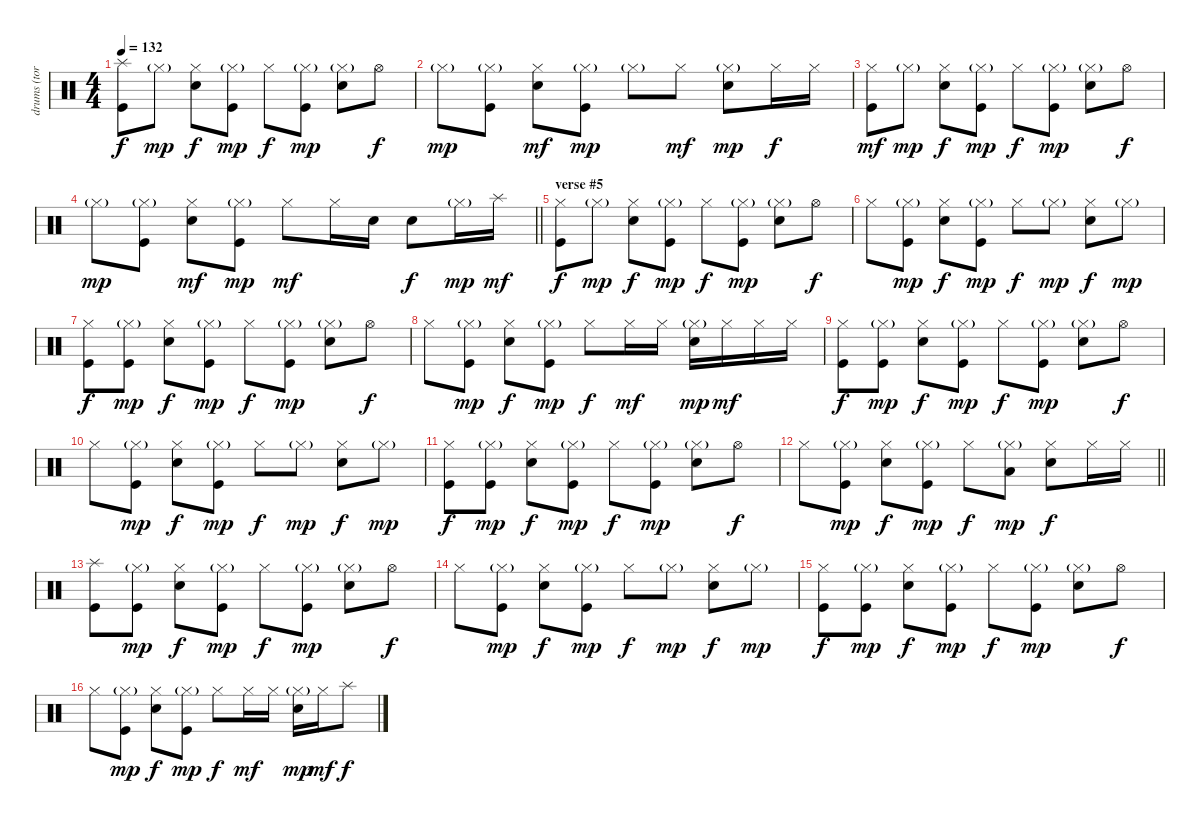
\track ("drums (tora)" "drums (tor") {instrument percussion}
\staff {score}
\articulation defaults
\ts (4 4)
\tempo 132
\clef neutral
\ks c
("Splash (hit)" "Kick (hit)").8{dy f} "Hi-Hat (closed)"{g}.8{dy mp} ("Hi-Hat (closed)" "Snare (hit) 2").8{dy f} ("Hi-Hat (closed)"{g} "Kick (hit)").8{dy mp} "Hi-Hat (closed)".8{dy f} ("Hi-Hat (closed)"{g} "Kick (hit)").8{dy mp} ("Hi-Hat (closed)"{g} "Snare (hit) 2").8 "Hi-Hat (open)".8{dy f} |
"Hi-Hat (closed)"{g}.8{dy mp} ("Hi-Hat (closed)"{g} "Kick (hit)").8 ("Hi-Hat (closed)" "Snare (hit) 2").8{dy mf} ("Hi-Hat (closed)"{g} "Kick (hit)").8{dy mp} "Hi-Hat (closed)"{g}.8 "Hi-Hat (closed)".8{dy mf} ("Hi-Hat (closed)"{g} "Snare (hit) 2").8{dy mp} "Hi-Hat (closed)".16{dy f} "Hi-Hat (closed)".16 |
("Hi-Hat (closed)" "Kick (hit)").8{dy mf} "Hi-Hat (closed)"{g}.8{dy mp} ("Hi-Hat (closed)" "Snare (hit) 2").8{dy f} ("Hi-Hat (closed)"{g} "Kick (hit)").8{dy mp} "Hi-Hat (closed)".8{dy f} ("Hi-Hat (closed)"{g} "Kick (hit)").8{dy mp} ("Hi-Hat (closed)"{g} "Snare (hit) 2").8 "Hi-Hat (open)".8{dy f} |
\barLineRight lightlight "Hi-Hat (closed)"{g}.8{dy mp}
("Hi-Hat (closed)"{g} "Kick (hit)").8 ("Hi-Hat (closed)" "Snare (hit) 2").8{dy mf} ("Hi-Hat (closed)"{g} "Kick (hit)").8{dy mp} "Hi-Hat (closed)".8{dy mf} "Hi-Hat (closed)".16 "Snare (hit) 2".16 "Snare (hit) 2".8{dy f} "Hi-Hat (closed)"{g}.16{dy mp} "Splash (hit)".16{dy mf} |
\section ("" "verse #5")
("Hi-Hat (closed)" "Kick (hit)").8{dy f} "Hi-Hat (closed)"{g}.8{dy mp} ("Hi-Hat (closed)" "Snare (hit) 2").8{dy f} ("Hi-Hat (closed)"{g} "Kick (hit)").8{dy mp} "Hi-Hat (closed)".8{dy f} ("Hi-Hat (closed)"{g} "Kick (hit)").8{dy mp} ("Hi-Hat (closed)"{g} "Snare (hit) 2").8 "Hi-Hat (open)".8{dy f} |
"Hi-Hat (closed)".8 ("Hi-Hat (closed)"{g} "Kick (hit)").8{dy mp} ("Hi-Hat (closed)" "Snare (hit) 2").8{dy f} ("Hi-Hat (closed)"{g} "Kick (hit)").8{dy mp} "Hi-Hat (closed)".8{dy f} "Hi-Hat (closed)"{g}.8{dy mp} ("Hi-Hat (closed)" "Snare (hit) 2").8{dy f} "Hi-Hat (closed)"{g}.8{dy mp} |
("Hi-Hat (closed)" "Kick (hit)").8{dy f} ("Hi-Hat (closed)"{g} "Kick (hit)").8{dy mp} ("Hi-Hat (closed)" "Snare (hit) 2").8{dy f} ("Hi-Hat (closed)"{g} "Kick (hit)").8{dy mp} "Hi-Hat (closed)".8{dy f} ("Hi-Hat (closed)"{g} "Kick (hit)").8{dy mp} ("Hi-Hat (closed)"{g} "Snare (hit) 2").8 "Hi-Hat (open)".8{dy f} |
"Hi-Hat (closed)".8 ("Hi-Hat (closed)"{g} "Kick (hit)").8{dy mp} ("Hi-Hat (closed)" "Snare (hit) 2").8{dy f} ("Hi-Hat (closed)"{g} "Kick (hit)").8{dy mp} "Hi-Hat (closed)".8{dy f} "Hi-Hat (closed)".16{dy mf} "Hi-Hat (closed)".16 ("Hi-Hat (closed)"{g} "Snare (hit) 2").16{dy mp} "Hi-Hat (closed)".16{dy mf} "Hi-Hat (closed)".16 "Hi-Hat (closed)".16 |
("Hi-Hat (closed)" "Kick (hit)").8{dy f} ("Hi-Hat (closed)"{g} "Kick (hit)").8{dy mp} ("Hi-Hat (closed)" "Snare (hit) 2").8{dy f} ("Hi-Hat (closed)"{g} "Kick (hit)").8{dy mp} "Hi-Hat (closed)".8{dy f} ("Hi-Hat (closed)"{g} "Kick (hit)").8{dy mp} ("Hi-Hat (closed)"{g} "Snare (hit) 2").8 "Hi-Hat (open)".8{dy f} |
"Hi-Hat (closed)".8 ("Hi-Hat (closed)"{g} "Kick (hit)").8{dy mp} ("Hi-Hat (closed)" "Snare (hit) 2").8{dy f} ("Hi-Hat (closed)"{g} "Kick (hit)").8{dy mp} "Hi-Hat (closed)".8{dy f} "Hi-Hat (closed)"{g}.8{dy mp} ("Hi-Hat (closed)" "Snare (hit) 2").8{dy f} "Hi-Hat (closed)"{g}.8{dy mp} |
("Hi-Hat (closed)" "Kick (hit)").8{dy f} ("Hi-Hat (closed)"{g} "Kick (hit)").8{dy mp} ("Hi-Hat (closed)" "Snare (hit) 2").8{dy f} ("Hi-Hat (closed)"{g} "Kick (hit)").8{dy mp} "Hi-Hat (closed)".8{dy f} ("Hi-Hat (closed)"{g} "Kick (hit)").8{dy mp} ("Hi-Hat (closed)"{g} "Snare (hit) 2").8 "Hi-Hat (open)".8{dy f} |
\barLineRight lightlight "Hi-Hat (closed)".8
("Hi-Hat (closed)"{g} "Kick (hit)").8{dy mp} ("Hi-Hat (closed)" "Snare (hit) 2").8{dy f} ("Hi-Hat (closed)"{g} "Kick (hit)").8{dy mp} "Hi-Hat (closed)".8{dy f} ("Hi-Hat (closed)"{g} "Low Tom (hit)").8{dy mp} ("Hi-Hat (closed)" "Snare (hit) 2").8{dy f} "Hi-Hat (closed)".16 "Hi-Hat (closed)".16 |
("Splash (hit)" "Kick (hit)").8 ("Hi-Hat (closed)"{g} "Kick (hit)").8{dy mp} ("Hi-Hat (closed)" "Snare (hit) 2").8{dy f} ("Hi-Hat (closed)"{g} "Kick (hit)").8{dy mp} "Hi-Hat (closed)".8{dy f} ("Hi-Hat (closed)"{g} "Kick (hit)").8{dy mp} ("Hi-Hat (closed)"{g} "Snare (hit) 2").8 "Hi-Hat (open)".8{dy f} |
"Hi-Hat (closed)".8 ("Hi-Hat (closed)"{g} "Kick (hit)").8{dy mp} ("Hi-Hat (closed)" "Snare (hit) 2").8{dy f} ("Hi-Hat (closed)"{g} "Kick (hit)").8{dy mp} "Hi-Hat (closed)".8{dy f} "Hi-Hat (closed)"{g}.8{dy mp} ("Hi-Hat (closed)" "Snare (hit) 2").8{dy f} "Hi-Hat (closed)"{g}.8{dy mp} |
("Hi-Hat (closed)" "Kick (hit)").8{dy f} ("Hi-Hat (closed)"{g} "Kick (hit)").8{dy mp} ("Hi-Hat (closed)" "Snare (hit) 2").8{dy f} ("Hi-Hat (closed)"{g} "Kick (hit)").8{dy mp} "Hi-Hat (closed)".8{dy f} ("Hi-Hat (closed)"{g} "Kick (hit)").8{dy mp} ("Hi-Hat (closed)"{g} "Snare (hit) 2").8 "Hi-Hat (open)".8{dy f} |
"Hi-Hat (closed)".8 ("Hi-Hat (closed)"{g} "Kick (hit)").8{dy mp} ("Hi-Hat (closed)" "Snare (hit) 2").8{dy f} ("Hi-Hat (closed)"{g} "Kick (hit)").8{dy mp} "Hi-Hat (closed)".8{dy f} "Hi-Hat (closed)".16{dy mf} "Hi-Hat (closed)".16 ("Hi-Hat (closed)"{g} "Snare (hit) 2").16{dy mp} "Hi-Hat (closed)".16{dy mf} "Splash (hit)".8{dy f}
